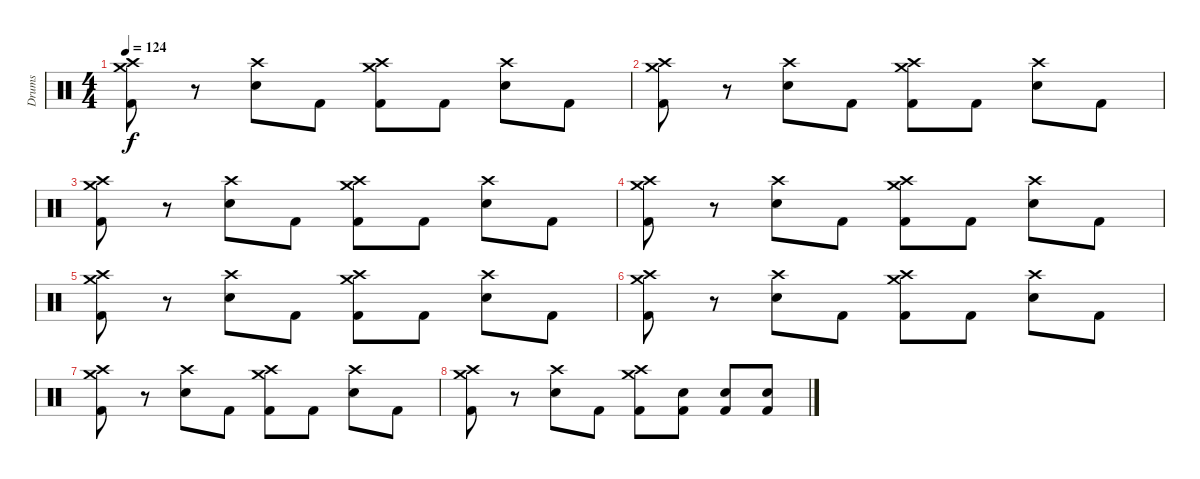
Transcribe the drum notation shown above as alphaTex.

\track ("Drums" "Drums") {instrument percussion}
\staff {score}
\articulation defaults
\ts (4 4)
\tempo 124
\clef neutral
\ks c
("Crash medium (hit)" "Crash high (hit)" "Kick (hit) 2").8{dy f} r.8 ("Crash high (hit)" "Snare (hit) 2").8 "Kick (hit) 2".8 ("Crash high (hit)" "Crash medium (hit)" "Kick (hit) 2").8 "Kick (hit) 2".8 ("Crash high (hit)" "Snare (hit) 2").8 "Kick (hit) 2".8 |
("Crash medium (hit)" "Crash high (hit)" "Kick (hit) 2").8 r.8 ("Crash high (hit)" "Snare (hit) 2").8 "Kick (hit) 2".8 ("Crash high (hit)" "Crash medium (hit)" "Kick (hit) 2").8 "Kick (hit) 2".8 ("Crash high (hit)" "Snare (hit) 2").8 "Kick (hit) 2".8 |
("Crash medium (hit)" "Crash high (hit)" "Kick (hit) 2").8 r.8 ("Crash high (hit)" "Snare (hit) 2").8 "Kick (hit) 2".8 ("Crash high (hit)" "Crash medium (hit)" "Kick (hit) 2").8 "Kick (hit) 2".8 ("Crash high (hit)" "Snare (hit) 2").8 "Kick (hit) 2".8 |
("Crash medium (hit)" "Crash high (hit)" "Kick (hit) 2").8 r.8 ("Crash high (hit)" "Snare (hit) 2").8 "Kick (hit) 2".8 ("Crash high (hit)" "Crash medium (hit)" "Kick (hit) 2").8 "Kick (hit) 2".8 ("Crash high (hit)" "Snare (hit) 2").8 "Kick (hit) 2".8 |
("Crash medium (hit)" "Crash high (hit)" "Kick (hit) 2").8 r.8 ("Crash high (hit)" "Snare (hit) 2").8 "Kick (hit) 2".8 ("Crash high (hit)" "Crash medium (hit)" "Kick (hit) 2").8 "Kick (hit) 2".8 ("Crash high (hit)" "Snare (hit) 2").8 "Kick (hit) 2".8 |
("Crash medium (hit)" "Crash high (hit)" "Kick (hit) 2").8 r.8 ("Crash high (hit)" "Snare (hit) 2").8 "Kick (hit) 2".8 ("Crash high (hit)" "Crash medium (hit)" "Kick (hit) 2").8 "Kick (hit) 2".8 ("Crash high (hit)" "Snare (hit) 2").8 "Kick (hit) 2".8 |
("Crash medium (hit)" "Crash high (hit)" "Kick (hit) 2").8 r.8 ("Crash high (hit)" "Snare (hit) 2").8 "Kick (hit) 2".8 ("Crash high (hit)" "Crash medium (hit)" "Kick (hit) 2").8 "Kick (hit) 2".8 ("Crash high (hit)" "Snare (hit) 2").8 "Kick (hit) 2".8 |
("Crash medium (hit)" "Crash high (hit)" "Kick (hit) 2").8 r.8 ("Crash high (hit)" "Snare (hit) 2").8 "Kick (hit) 2".8 ("Crash high (hit)" "Crash medium (hit)" "Kick (hit) 2").8 ("Snare (hit) 2" "Kick (hit) 2").8 ("Snare (hit) 2" "Kick (hit) 2").8 ("Snare (hit) 2" "Kick (hit) 2").8
